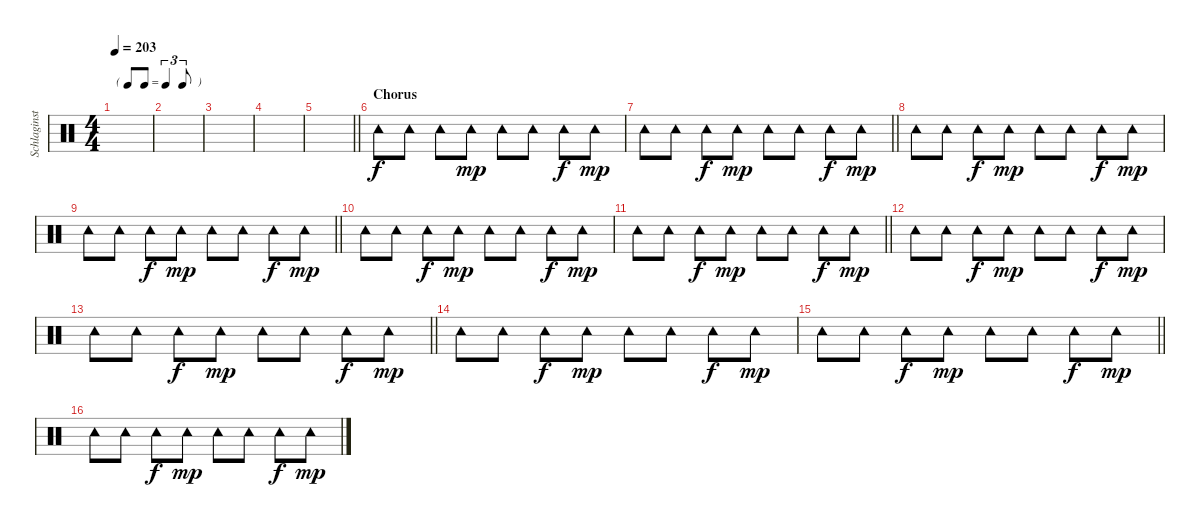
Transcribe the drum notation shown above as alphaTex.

\track ("Schlaginstrumente - Auswahl" "Schlaginst") {instrument percussion}
\staff {score}
\articulation defaults
\ts (4 4)
\tf triplet8th
\tempo 203
\clef neutral
\ks c
|
|
|
|
\barLineRight lightlight
|
\section ("" "Chorus")
"Tambourine (hit)".8 "Tambourine (hit)".8 "Tambourine (hit)".8{dy f} "Tambourine (hit)".8{dy mp} "Tambourine (hit)".8 "Tambourine (hit)".8 "Tambourine (hit)".8{dy f} "Tambourine (hit)".8{dy mp} |
\barLineRight lightlight "Tambourine (hit)".8 "Tambourine (hit)".8 "Tambourine (hit)".8{dy f} "Tambourine (hit)".8{dy mp} "Tambourine (hit)".8 "Tambourine (hit)".8 "Tambourine (hit)".8{dy f} "Tambourine (hit)".8{dy mp}
|
"Tambourine (hit)".8 "Tambourine (hit)".8 "Tambourine (hit)".8{dy f} "Tambourine (hit)".8{dy mp} "Tambourine (hit)".8 "Tambourine (hit)".8 "Tambourine (hit)".8{dy f} "Tambourine (hit)".8{dy mp} |
\barLineRight lightlight "Tambourine (hit)".8 "Tambourine (hit)".8 "Tambourine (hit)".8{dy f} "Tambourine (hit)".8{dy mp} "Tambourine (hit)".8 "Tambourine (hit)".8 "Tambourine (hit)".8{dy f} "Tambourine (hit)".8{dy mp}
|
"Tambourine (hit)".8 "Tambourine (hit)".8 "Tambourine (hit)".8{dy f} "Tambourine (hit)".8{dy mp} "Tambourine (hit)".8 "Tambourine (hit)".8 "Tambourine (hit)".8{dy f} "Tambourine (hit)".8{dy mp} |
\barLineRight lightlight "Tambourine (hit)".8 "Tambourine (hit)".8 "Tambourine (hit)".8{dy f} "Tambourine (hit)".8{dy mp} "Tambourine (hit)".8 "Tambourine (hit)".8 "Tambourine (hit)".8{dy f} "Tambourine (hit)".8{dy mp}
|
"Tambourine (hit)".8 "Tambourine (hit)".8 "Tambourine (hit)".8{dy f} "Tambourine (hit)".8{dy mp} "Tambourine (hit)".8 "Tambourine (hit)".8 "Tambourine (hit)".8{dy f} "Tambourine (hit)".8{dy mp} |
\barLineRight lightlight "Tambourine (hit)".8 "Tambourine (hit)".8 "Tambourine (hit)".8{dy f} "Tambourine (hit)".8{dy mp} "Tambourine (hit)".8 "Tambourine (hit)".8 "Tambourine (hit)".8{dy f} "Tambourine (hit)".8{dy mp}
|
"Tambourine (hit)".8 "Tambourine (hit)".8 "Tambourine (hit)".8{dy f} "Tambourine (hit)".8{dy mp} "Tambourine (hit)".8 "Tambourine (hit)".8 "Tambourine (hit)".8{dy f} "Tambourine (hit)".8{dy mp} |
\barLineRight lightlight "Tambourine (hit)".8 "Tambourine (hit)".8 "Tambourine (hit)".8{dy f} "Tambourine (hit)".8{dy mp} "Tambourine (hit)".8 "Tambourine (hit)".8 "Tambourine (hit)".8{dy f} "Tambourine (hit)".8{dy mp}
|
"Tambourine (hit)".8 "Tambourine (hit)".8 "Tambourine (hit)".8{dy f} "Tambourine (hit)".8{dy mp} "Tambourine (hit)".8 "Tambourine (hit)".8 "Tambourine (hit)".8{dy f} "Tambourine (hit)".8{dy mp}
